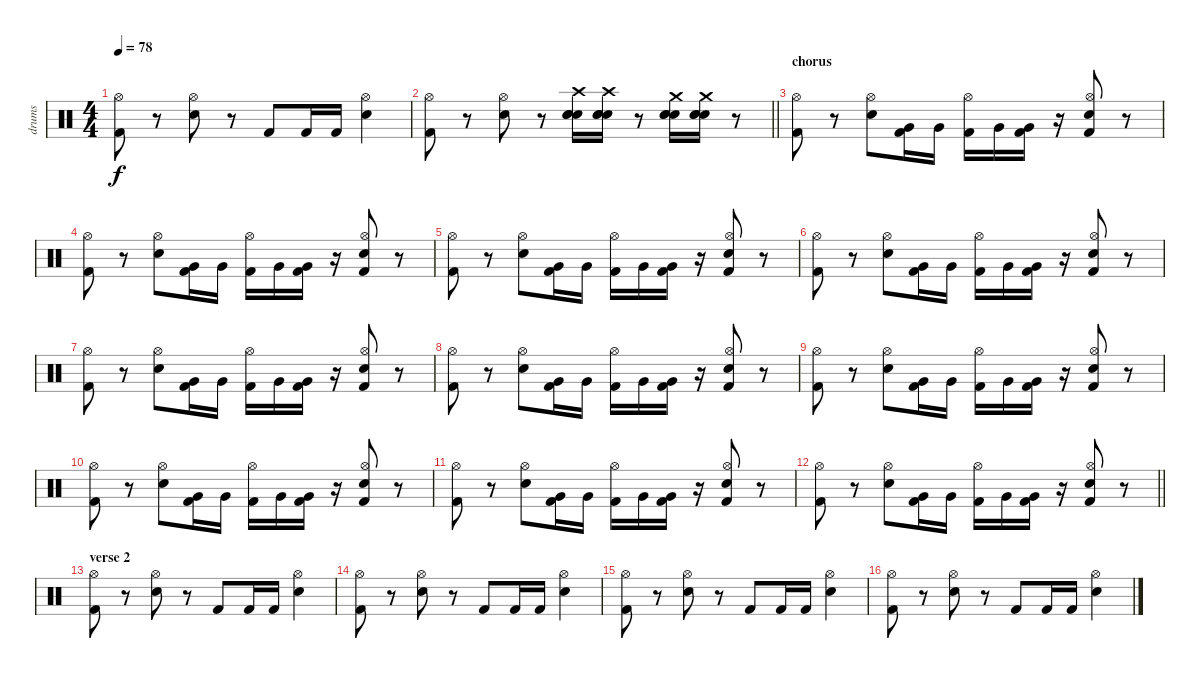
\track ("drums" "drums") {instrument percussion}
\staff {score}
\articulation defaults
\ts (4 4)
\tempo 78
\clef neutral
\ks c
("Kick (hit) 2" "Hi-Hat (open)").8{dy f} r.8 ("Electric Snare (hit)" "Hi-Hat (open)").8 r.8 "Kick (hit) 2".8 "Kick (hit) 2".16 "Kick (hit) 2".16 ("Electric Snare (hit)" "Hi-Hat (open)").4 |
\barLineRight lightlight
("Kick (hit) 2" "Hi-Hat (open)").8 r.8 ("Electric Snare (hit)" "Hi-Hat (open)").8 r.8 ("Electric Snare (hit)" "Electric Snare (hit)" "Electric Snare (hit)" "Crash high (hit)").16 ("Electric Snare (hit)" "Electric Snare (hit)" "Electric Snare (hit)" "Crash high (hit)").16 r.8 ("Electric Snare (hit)" "Electric Snare (hit)" "Electric Snare (hit)" "Crash medium (hit)").16 ("Electric Snare (hit)" "Electric Snare (hit)" "Electric Snare (hit)" "Crash medium (hit)").16 r.8 |
\section ("" "chorus")
("Kick (hit) 2" "Hi-Hat (open)").8 r.8 ("Electric Snare (hit)" "Hi-Hat (open)").8 ("Kick (hit) 2" "Very Low Tom (hit)").16 "Very Low Tom (hit)".16 ("Kick (hit) 2" "Hi-Hat (open)").16 "Very Low Tom (hit)".16 ("Kick (hit) 2" "Very Low Tom (hit)").16 r.16 ("Kick (hit) 2" "Electric Snare (hit)" "Hi-Hat (open)").8 r.8 |
("Kick (hit) 2" "Hi-Hat (open)").8 r.8 ("Electric Snare (hit)" "Hi-Hat (open)").8 ("Kick (hit) 2" "Very Low Tom (hit)").16 "Very Low Tom (hit)".16 ("Kick (hit) 2" "Hi-Hat (open)").16 "Very Low Tom (hit)".16 ("Kick (hit) 2" "Very Low Tom (hit)").16 r.16 ("Kick (hit) 2" "Electric Snare (hit)" "Hi-Hat (open)").8 r.8 |
("Kick (hit) 2" "Hi-Hat (open)").8 r.8 ("Electric Snare (hit)" "Hi-Hat (open)").8 ("Kick (hit) 2" "Very Low Tom (hit)").16 "Very Low Tom (hit)".16 ("Kick (hit) 2" "Hi-Hat (open)").16 "Very Low Tom (hit)".16 ("Kick (hit) 2" "Very Low Tom (hit)").16 r.16 ("Kick (hit) 2" "Electric Snare (hit)" "Hi-Hat (open)").8 r.8 |
("Kick (hit) 2" "Hi-Hat (open)").8 r.8 ("Electric Snare (hit)" "Hi-Hat (open)").8 ("Kick (hit) 2" "Very Low Tom (hit)").16 "Very Low Tom (hit)".16 ("Kick (hit) 2" "Hi-Hat (open)").16 "Very Low Tom (hit)".16 ("Kick (hit) 2" "Very Low Tom (hit)").16 r.16 ("Kick (hit) 2" "Electric Snare (hit)" "Hi-Hat (open)").8 r.8 |
("Kick (hit) 2" "Hi-Hat (open)").8 r.8 ("Electric Snare (hit)" "Hi-Hat (open)").8 ("Kick (hit) 2" "Very Low Tom (hit)").16 "Very Low Tom (hit)".16 ("Kick (hit) 2" "Hi-Hat (open)").16 "Very Low Tom (hit)".16 ("Kick (hit) 2" "Very Low Tom (hit)").16 r.16 ("Kick (hit) 2" "Electric Snare (hit)" "Hi-Hat (open)").8 r.8 |
("Kick (hit) 2" "Hi-Hat (open)").8 r.8 ("Electric Snare (hit)" "Hi-Hat (open)").8 ("Kick (hit) 2" "Very Low Tom (hit)").16 "Very Low Tom (hit)".16 ("Kick (hit) 2" "Hi-Hat (open)").16 "Very Low Tom (hit)".16 ("Kick (hit) 2" "Very Low Tom (hit)").16 r.16 ("Kick (hit) 2" "Electric Snare (hit)" "Hi-Hat (open)").8 r.8 |
("Kick (hit) 2" "Hi-Hat (open)").8 r.8 ("Electric Snare (hit)" "Hi-Hat (open)").8 ("Kick (hit) 2" "Very Low Tom (hit)").16 "Very Low Tom (hit)".16 ("Kick (hit) 2" "Hi-Hat (open)").16 "Very Low Tom (hit)".16 ("Kick (hit) 2" "Very Low Tom (hit)").16 r.16 ("Kick (hit) 2" "Electric Snare (hit)" "Hi-Hat (open)").8 r.8 |
("Kick (hit) 2" "Hi-Hat (open)").8 r.8 ("Electric Snare (hit)" "Hi-Hat (open)").8 ("Kick (hit) 2" "Very Low Tom (hit)").16 "Very Low Tom (hit)".16 ("Kick (hit) 2" "Hi-Hat (open)").16 "Very Low Tom (hit)".16 ("Kick (hit) 2" "Very Low Tom (hit)").16 r.16 ("Kick (hit) 2" "Electric Snare (hit)" "Hi-Hat (open)").8 r.8 |
("Kick (hit) 2" "Hi-Hat (open)").8 r.8 ("Electric Snare (hit)" "Hi-Hat (open)").8 ("Kick (hit) 2" "Very Low Tom (hit)").16 "Very Low Tom (hit)".16 ("Kick (hit) 2" "Hi-Hat (open)").16 "Very Low Tom (hit)".16 ("Kick (hit) 2" "Very Low Tom (hit)").16 r.16 ("Kick (hit) 2" "Electric Snare (hit)" "Hi-Hat (open)").8 r.8 |
\barLineRight lightlight
("Kick (hit) 2" "Hi-Hat (open)").8 r.8 ("Electric Snare (hit)" "Hi-Hat (open)").8 ("Kick (hit) 2" "Very Low Tom (hit)").16 "Very Low Tom (hit)".16 ("Kick (hit) 2" "Hi-Hat (open)").16 "Very Low Tom (hit)".16 ("Kick (hit) 2" "Very Low Tom (hit)").16 r.16 ("Kick (hit) 2" "Electric Snare (hit)" "Hi-Hat (open)").8 r.8 |
\section ("" "verse 2")
("Kick (hit) 2" "Hi-Hat (open)").8 r.8 ("Electric Snare (hit)" "Hi-Hat (open)").8 r.8 "Kick (hit) 2".8 "Kick (hit) 2".16 "Kick (hit) 2".16 ("Electric Snare (hit)" "Hi-Hat (open)").4 |
("Kick (hit) 2" "Hi-Hat (open)").8 r.8 ("Electric Snare (hit)" "Hi-Hat (open)").8 r.8 "Kick (hit) 2".8 "Kick (hit) 2".16 "Kick (hit) 2".16 ("Electric Snare (hit)" "Hi-Hat (open)").4 |
("Kick (hit) 2" "Hi-Hat (open)").8 r.8 ("Electric Snare (hit)" "Hi-Hat (open)").8 r.8 "Kick (hit) 2".8 "Kick (hit) 2".16 "Kick (hit) 2".16 ("Electric Snare (hit)" "Hi-Hat (open)").4 |
("Kick (hit) 2" "Hi-Hat (open)").8 r.8 ("Electric Snare (hit)" "Hi-Hat (open)").8 r.8 "Kick (hit) 2".8 "Kick (hit) 2".16 "Kick (hit) 2".16 ("Electric Snare (hit)" "Hi-Hat (open)").4
